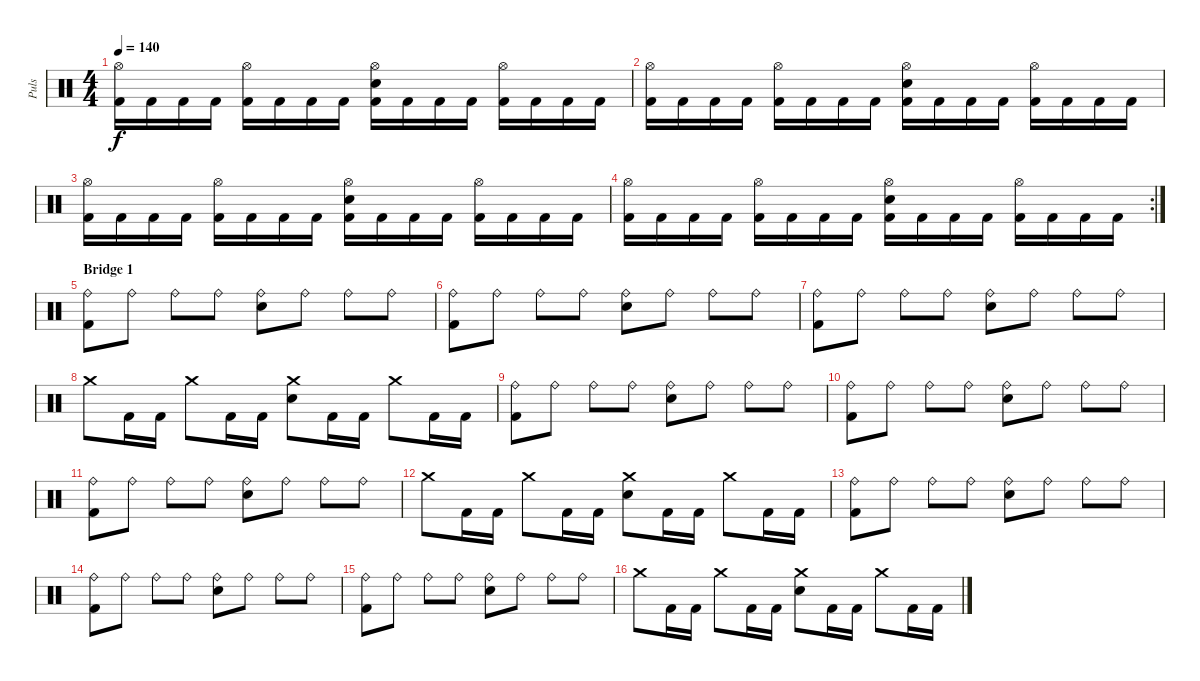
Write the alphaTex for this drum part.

\track ("Puls" "Puls") {instrument percussion}
\staff {score}
\articulation defaults
\ts (4 4)
\tempo 140
\clef neutral
\ks c
("Hi-Hat (open)" "Kick (hit) 2").16{dy f} "Kick (hit) 2".16 "Kick (hit) 2".16 "Kick (hit) 2".16 ("Hi-Hat (open)" "Kick (hit) 2").16 "Kick (hit) 2".16 "Kick (hit) 2".16 "Kick (hit) 2".16 ("Hi-Hat (open)" "Electric Snare (hit)" "Kick (hit) 2").16 "Kick (hit) 2".16 "Kick (hit) 2".16 "Kick (hit) 2".16 ("Hi-Hat (open)" "Kick (hit) 2").16 "Kick (hit) 2".16 "Kick (hit) 2".16 "Kick (hit) 2".16 |
("Hi-Hat (open)" "Kick (hit) 2").16 "Kick (hit) 2".16 "Kick (hit) 2".16 "Kick (hit) 2".16 ("Hi-Hat (open)" "Kick (hit) 2").16 "Kick (hit) 2".16 "Kick (hit) 2".16 "Kick (hit) 2".16 ("Hi-Hat (open)" "Electric Snare (hit)" "Kick (hit) 2").16 "Kick (hit) 2".16 "Kick (hit) 2".16 "Kick (hit) 2".16 ("Hi-Hat (open)" "Kick (hit) 2").16 "Kick (hit) 2".16 "Kick (hit) 2".16 "Kick (hit) 2".16 |
("Hi-Hat (open)" "Kick (hit) 2").16 "Kick (hit) 2".16 "Kick (hit) 2".16 "Kick (hit) 2".16 ("Hi-Hat (open)" "Kick (hit) 2").16 "Kick (hit) 2".16 "Kick (hit) 2".16 "Kick (hit) 2".16 ("Hi-Hat (open)" "Electric Snare (hit)" "Kick (hit) 2").16 "Kick (hit) 2".16 "Kick (hit) 2".16 "Kick (hit) 2".16 ("Hi-Hat (open)" "Kick (hit) 2").16 "Kick (hit) 2".16 "Kick (hit) 2".16 "Kick (hit) 2".16 |
\rc 2
("Hi-Hat (open)" "Kick (hit) 2").16 "Kick (hit) 2".16 "Kick (hit) 2".16 "Kick (hit) 2".16 ("Hi-Hat (open)" "Kick (hit) 2").16 "Kick (hit) 2".16 "Kick (hit) 2".16 "Kick (hit) 2".16 ("Hi-Hat (open)" "Electric Snare (hit)" "Kick (hit) 2").16 "Kick (hit) 2".16 "Kick (hit) 2".16 "Kick (hit) 2".16 ("Hi-Hat (open)" "Kick (hit) 2").16 "Kick (hit) 2".16 "Kick (hit) 2".16 "Kick (hit) 2".16 |
\section ("" "Bridge 1")
("Ride (bell)" "Kick (hit) 2").8 "Ride (bell)".8 "Ride (bell)".8 "Ride (bell)".8 ("Ride (bell)" "Electric Snare (hit)").8 "Ride (bell)".8 "Ride (bell)".8 "Ride (bell)".8 |
("Ride (bell)" "Kick (hit) 2").8 "Ride (bell)".8 "Ride (bell)".8 "Ride (bell)".8 ("Ride (bell)" "Electric Snare (hit)").8 "Ride (bell)".8 "Ride (bell)".8 "Ride (bell)".8 |
("Ride (bell)" "Kick (hit) 2").8 "Ride (bell)".8 "Ride (bell)".8 "Ride (bell)".8 ("Ride (bell)" "Electric Snare (hit)").8 "Ride (bell)".8 "Ride (bell)".8 "Ride (bell)".8 |
"Crash medium (hit)".8 "Kick (hit) 2".16 "Kick (hit) 2".16 "Crash medium (hit)".8 "Kick (hit) 2".16 "Kick (hit) 2".16 ("Crash medium (hit)" "Electric Snare (hit)").8 "Kick (hit) 2".16 "Kick (hit) 2".16 "Crash medium (hit)".8 "Kick (hit) 2".16 "Kick (hit) 2".16 |
("Ride (bell)" "Kick (hit) 2").8 "Ride (bell)".8 "Ride (bell)".8 "Ride (bell)".8 ("Ride (bell)" "Electric Snare (hit)").8 "Ride (bell)".8 "Ride (bell)".8 "Ride (bell)".8 |
("Ride (bell)" "Kick (hit) 2").8 "Ride (bell)".8 "Ride (bell)".8 "Ride (bell)".8 ("Ride (bell)" "Electric Snare (hit)").8 "Ride (bell)".8 "Ride (bell)".8 "Ride (bell)".8 |
("Ride (bell)" "Kick (hit) 2").8 "Ride (bell)".8 "Ride (bell)".8 "Ride (bell)".8 ("Ride (bell)" "Electric Snare (hit)").8 "Ride (bell)".8 "Ride (bell)".8 "Ride (bell)".8 |
"Crash medium (hit)".8 "Kick (hit) 2".16 "Kick (hit) 2".16 "Crash medium (hit)".8 "Kick (hit) 2".16 "Kick (hit) 2".16 ("Crash medium (hit)" "Electric Snare (hit)").8 "Kick (hit) 2".16 "Kick (hit) 2".16 "Crash medium (hit)".8 "Kick (hit) 2".16 "Kick (hit) 2".16 |
("Ride (bell)" "Kick (hit) 2").8 "Ride (bell)".8 "Ride (bell)".8 "Ride (bell)".8 ("Ride (bell)" "Electric Snare (hit)").8 "Ride (bell)".8 "Ride (bell)".8 "Ride (bell)".8 |
("Ride (bell)" "Kick (hit) 2").8 "Ride (bell)".8 "Ride (bell)".8 "Ride (bell)".8 ("Ride (bell)" "Electric Snare (hit)").8 "Ride (bell)".8 "Ride (bell)".8 "Ride (bell)".8 |
("Ride (bell)" "Kick (hit) 2").8 "Ride (bell)".8 "Ride (bell)".8 "Ride (bell)".8 ("Ride (bell)" "Electric Snare (hit)").8 "Ride (bell)".8 "Ride (bell)".8 "Ride (bell)".8 |
"Crash medium (hit)".8 "Kick (hit) 2".16 "Kick (hit) 2".16 "Crash medium (hit)".8 "Kick (hit) 2".16 "Kick (hit) 2".16 ("Crash medium (hit)" "Electric Snare (hit)").8 "Kick (hit) 2".16 "Kick (hit) 2".16 "Crash medium (hit)".8 "Kick (hit) 2".16 "Kick (hit) 2".16
